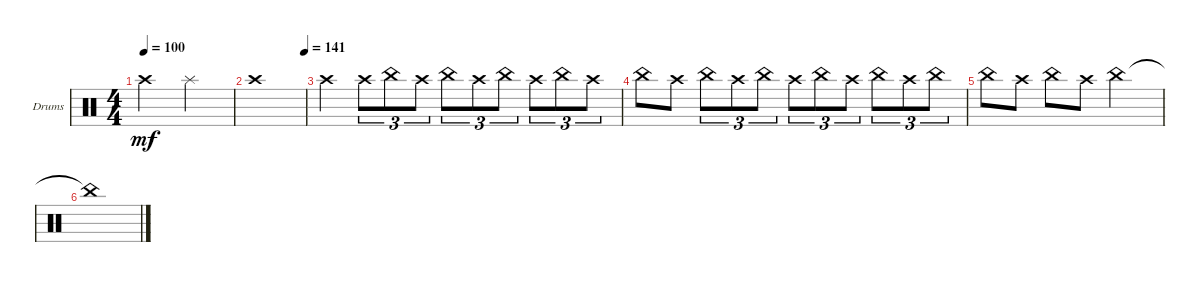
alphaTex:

\defaultSystemsLayout 4
\bracketExtendMode groupsimilarinstruments
\firstSystemTrackNameOrientation horizontal
\otherSystemsTrackNameOrientation horizontal
\track ("Cymbol" "Drums") {instrument percussion}
\staff {score}
\articulation defaults
\ts (4 4)
\tempo 100
\clef neutral
\ks c "Crash high (hit)".2{dy mf} "Splash (hit)".2
|
\tempo (141 0.99375)
"Crash high (hit)".1 |
"Crash high (hit)".4 "Crash high (hit)".8{tu (3 2)} "China (hit)".8{tu (3 2)} "Crash high (hit)".8{tu (3 2)} "China (hit)".8{tu (3 2)} "Crash high (hit)".8{tu (3 2)} "China (hit)".8{tu (3 2)} "Crash high (hit)".8{tu (3 2)} "China (hit)".8{tu (3 2)} "Crash high (hit)".8{tu (3 2)} |
"China (hit)".8 "Crash high (hit)".8 "China (hit)".8{tu (3 2)} "Crash high (hit)".8{tu (3 2)} "China (hit)".8{tu (3 2)} "Crash high (hit)".8{tu (3 2)} "China (hit)".8{tu (3 2)} "Crash high (hit)".8{tu (3 2)} "China (hit)".8{tu (3 2)} "Crash high (hit)".8{tu (3 2)} "China (hit)".8{tu (3 2)} |
"China (hit)".8 "Crash high (hit)".8 "China (hit)".8 "Crash high (hit)".8 "China (hit)".2 |
"China (hit)"{t}.1
